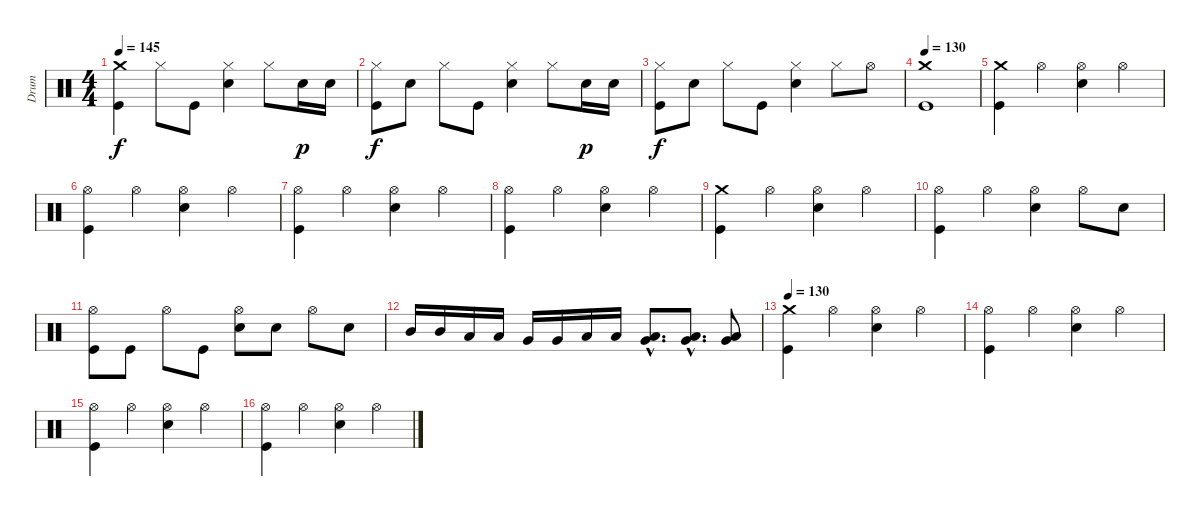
\track ("Drum" "Drum") {instrument percussion}
\staff {score}
\articulation defaults
\ts (4 4)
\tempo 145
\clef neutral
\ks c
("Kick (hit)" "Crash medium (hit)").4{dy f} "Hi-Hat (closed)".8 "Kick (hit)".8 ("Electric Snare (hit)" "Hi-Hat (closed)").4 "Hi-Hat (closed)".8 "Electric Snare (hit)".16{dy p} "Electric Snare (hit)".16 |
("Kick (hit)" "Hi-Hat (closed)").8{dy f} "Electric Snare (hit)".8 "Hi-Hat (closed)".8 "Kick (hit)".8 ("Electric Snare (hit)" "Hi-Hat (closed)").4 "Hi-Hat (closed)".8 "Electric Snare (hit)".16{dy p} "Electric Snare (hit)".16 |
("Kick (hit)" "Hi-Hat (closed)").8{dy f} "Electric Snare (hit)".8 "Hi-Hat (closed)".8 "Kick (hit)".8 ("Electric Snare (hit)" "Hi-Hat (closed)").4 "Hi-Hat (closed)".8 "Hi-Hat (open)".8 |
\tempo 130
("Kick (hit)" "Crash medium (hit)").1 |
("Kick (hit)" "Crash medium (hit)").4 "Hi-Hat (open)".4 ("Electric Snare (hit)" "Hi-Hat (open)").4 "Hi-Hat (open)".4 |
("Kick (hit)" "Hi-Hat (open)").4 "Hi-Hat (open)".4 ("Electric Snare (hit)" "Hi-Hat (open)").4 "Hi-Hat (open)".4 |
("Kick (hit)" "Hi-Hat (open)").4 "Hi-Hat (open)".4 ("Electric Snare (hit)" "Hi-Hat (open)").4 "Hi-Hat (open)".4 |
("Kick (hit)" "Hi-Hat (open)").4 "Hi-Hat (open)".4 ("Electric Snare (hit)" "Hi-Hat (open)").4 "Hi-Hat (open)".4 |
("Kick (hit)" "Crash medium (hit)").4 "Hi-Hat (open)".4 ("Electric Snare (hit)" "Hi-Hat (open)").4 "Hi-Hat (open)".4 |
("Kick (hit)" "Hi-Hat (open)").4 "Hi-Hat (open)".4 ("Electric Snare (hit)" "Hi-Hat (open)").4 "Hi-Hat (open)".8 "Electric Snare (hit)".8 |
("Kick (hit)" "Hi-Hat (open)").8 "Kick (hit)".8 "Hi-Hat (open)".8 "Kick (hit)".8 ("Electric Snare (hit)" "Hi-Hat (open)").8 "Electric Snare (hit)".8 "Hi-Hat (open)".8 "Electric Snare (hit)".8 |
"Mid Tom (hit)".16 "Mid Tom (hit)".16 "Low Tom (hit)".16 "Low Tom (hit)".16 "Very Low Tom (hit)".16 "Very Low Tom (hit)".16 "Low Floor Tom (hit)".16 "Low Floor Tom (hit)".16 ("Low Floor Tom (hit)"{hac} "Very Low Tom (hit)"{hac}).8{d} ("Low Floor Tom (hit)"{hac} "Very Low Tom (hit)"{hac}).8{d} ("Low Floor Tom (hit)" "Very Low Tom (hit)").8 |
\tempo 130
("Kick (hit)" "Crash medium (hit)").4 "Hi-Hat (open)".4 ("Electric Snare (hit)" "Hi-Hat (open)").4 "Hi-Hat (open)".4 |
("Kick (hit)" "Hi-Hat (open)").4 "Hi-Hat (open)".4 ("Electric Snare (hit)" "Hi-Hat (open)").4 "Hi-Hat (open)".4 |
("Kick (hit)" "Hi-Hat (open)").4 "Hi-Hat (open)".4 ("Electric Snare (hit)" "Hi-Hat (open)").4 "Hi-Hat (open)".4 |
("Kick (hit)" "Hi-Hat (open)").4 "Hi-Hat (open)".4 ("Electric Snare (hit)" "Hi-Hat (open)").4 "Hi-Hat (open)".4
